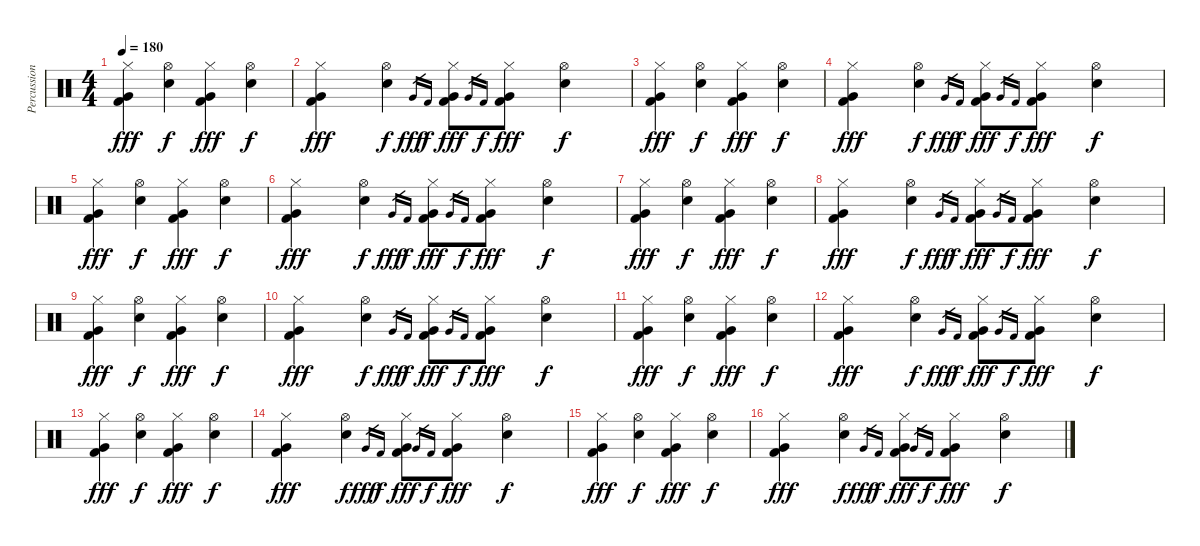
\track ("Percussion" "Percussion") {instrument percussion}
\staff {score}
\articulation defaults
\ts (4 4)
\tempo 180
\clef neutral
\ks c
("Hi-Hat (closed)" "Very Low Tom (hit)" "Kick (hit) 2").4{dy fff} ("Hi-Hat (open)" "Electric Snare (hit)").4{dy f} ("Hi-Hat (closed)" "Very Low Tom (hit)" "Kick (hit) 2").4{dy fff} ("Hi-Hat (open)" "Electric Snare (hit)").4{dy f} |
("Hi-Hat (closed)" "Very Low Tom (hit)" "Kick (hit) 2").4{dy fff} ("Hi-Hat (open)" "Electric Snare (hit)").4{dy f} "Very Low Tom (hit)".16{gr dy fff} "Kick (hit) 2".16{gr dy f} ("Hi-Hat (closed)" "Very Low Tom (hit)" "Kick (hit) 2").8{dy fff} "Very Low Tom (hit)".16{gr} "Kick (hit) 2".16{gr dy f} ("Hi-Hat (closed)" "Very Low Tom (hit)" "Kick (hit) 2").8{dy fff} ("Hi-Hat (open)" "Electric Snare (hit)").4{dy f} |
("Hi-Hat (closed)" "Very Low Tom (hit)" "Kick (hit) 2").4{dy fff} ("Hi-Hat (open)" "Electric Snare (hit)").4{dy f} ("Hi-Hat (closed)" "Very Low Tom (hit)" "Kick (hit) 2").4{dy fff} ("Hi-Hat (open)" "Electric Snare (hit)").4{dy f} |
("Hi-Hat (closed)" "Very Low Tom (hit)" "Kick (hit) 2").4{dy fff} ("Hi-Hat (open)" "Electric Snare (hit)").4{dy f} "Very Low Tom (hit)".16{gr dy fff} "Kick (hit) 2".16{gr dy f} ("Hi-Hat (closed)" "Very Low Tom (hit)" "Kick (hit) 2").8{dy fff} "Very Low Tom (hit)".16{gr} "Kick (hit) 2".16{gr dy f} ("Hi-Hat (closed)" "Very Low Tom (hit)" "Kick (hit) 2").8{dy fff} ("Hi-Hat (open)" "Electric Snare (hit)").4{dy f} |
("Hi-Hat (closed)" "Very Low Tom (hit)" "Kick (hit) 2").4{dy fff} ("Hi-Hat (open)" "Electric Snare (hit)").4{dy f} ("Hi-Hat (closed)" "Very Low Tom (hit)" "Kick (hit) 2").4{dy fff} ("Hi-Hat (open)" "Electric Snare (hit)").4{dy f} |
("Hi-Hat (closed)" "Very Low Tom (hit)" "Kick (hit) 2").4{dy fff} ("Hi-Hat (open)" "Electric Snare (hit)").4{dy f} "Very Low Tom (hit)".16{gr dy fff} "Kick (hit) 2".16{gr dy f} ("Hi-Hat (closed)" "Very Low Tom (hit)" "Kick (hit) 2").8{dy fff} "Very Low Tom (hit)".16{gr} "Kick (hit) 2".16{gr dy f} ("Hi-Hat (closed)" "Very Low Tom (hit)" "Kick (hit) 2").8{dy fff} ("Hi-Hat (open)" "Electric Snare (hit)").4{dy f} |
("Hi-Hat (closed)" "Very Low Tom (hit)" "Kick (hit) 2").4{dy fff} ("Hi-Hat (open)" "Electric Snare (hit)").4{dy f} ("Hi-Hat (closed)" "Very Low Tom (hit)" "Kick (hit) 2").4{dy fff} ("Hi-Hat (open)" "Electric Snare (hit)").4{dy f} |
("Hi-Hat (closed)" "Very Low Tom (hit)" "Kick (hit) 2").4{dy fff} ("Hi-Hat (open)" "Electric Snare (hit)").4{dy f} "Very Low Tom (hit)".16{gr dy fff} "Kick (hit) 2".16{gr dy f} ("Hi-Hat (closed)" "Very Low Tom (hit)" "Kick (hit) 2").8{dy fff} "Very Low Tom (hit)".16{gr} "Kick (hit) 2".16{gr dy f} ("Hi-Hat (closed)" "Very Low Tom (hit)" "Kick (hit) 2").8{dy fff} ("Hi-Hat (open)" "Electric Snare (hit)").4{dy f} |
("Hi-Hat (closed)" "Very Low Tom (hit)" "Kick (hit) 2").4{dy fff} ("Hi-Hat (open)" "Electric Snare (hit)").4{dy f} ("Hi-Hat (closed)" "Very Low Tom (hit)" "Kick (hit) 2").4{dy fff} ("Hi-Hat (open)" "Electric Snare (hit)").4{dy f} |
("Hi-Hat (closed)" "Very Low Tom (hit)" "Kick (hit) 2").4{dy fff} ("Hi-Hat (open)" "Electric Snare (hit)").4{dy f} "Very Low Tom (hit)".16{gr dy fff} "Kick (hit) 2".16{gr dy f} ("Hi-Hat (closed)" "Very Low Tom (hit)" "Kick (hit) 2").8{dy fff} "Very Low Tom (hit)".16{gr} "Kick (hit) 2".16{gr dy f} ("Hi-Hat (closed)" "Very Low Tom (hit)" "Kick (hit) 2").8{dy fff} ("Hi-Hat (open)" "Electric Snare (hit)").4{dy f} |
("Hi-Hat (closed)" "Very Low Tom (hit)" "Kick (hit) 2").4{dy fff} ("Hi-Hat (open)" "Electric Snare (hit)").4{dy f} ("Hi-Hat (closed)" "Very Low Tom (hit)" "Kick (hit) 2").4{dy fff} ("Hi-Hat (open)" "Electric Snare (hit)").4{dy f} |
("Hi-Hat (closed)" "Very Low Tom (hit)" "Kick (hit) 2").4{dy fff} ("Hi-Hat (open)" "Electric Snare (hit)").4{dy f} "Very Low Tom (hit)".16{gr dy fff} "Kick (hit) 2".16{gr dy f} ("Hi-Hat (closed)" "Very Low Tom (hit)" "Kick (hit) 2").8{dy fff} "Very Low Tom (hit)".16{gr} "Kick (hit) 2".16{gr dy f} ("Hi-Hat (closed)" "Very Low Tom (hit)" "Kick (hit) 2").8{dy fff} ("Hi-Hat (open)" "Electric Snare (hit)").4{dy f} |
("Hi-Hat (closed)" "Very Low Tom (hit)" "Kick (hit) 2").4{dy fff} ("Hi-Hat (open)" "Electric Snare (hit)").4{dy f} ("Hi-Hat (closed)" "Very Low Tom (hit)" "Kick (hit) 2").4{dy fff} ("Hi-Hat (open)" "Electric Snare (hit)").4{dy f} |
("Hi-Hat (closed)" "Very Low Tom (hit)" "Kick (hit) 2").4{dy fff} ("Hi-Hat (open)" "Electric Snare (hit)").4{dy f} "Very Low Tom (hit)".16{gr dy fff} "Kick (hit) 2".16{gr dy f} ("Hi-Hat (closed)" "Very Low Tom (hit)" "Kick (hit) 2").8{dy fff} "Very Low Tom (hit)".16{gr} "Kick (hit) 2".16{gr dy f} ("Hi-Hat (closed)" "Very Low Tom (hit)" "Kick (hit) 2").8{dy fff} ("Hi-Hat (open)" "Electric Snare (hit)").4{dy f} |
("Hi-Hat (closed)" "Very Low Tom (hit)" "Kick (hit) 2").4{dy fff} ("Hi-Hat (open)" "Electric Snare (hit)").4{dy f} ("Hi-Hat (closed)" "Very Low Tom (hit)" "Kick (hit) 2").4{dy fff} ("Hi-Hat (open)" "Electric Snare (hit)").4{dy f} |
("Hi-Hat (closed)" "Very Low Tom (hit)" "Kick (hit) 2").4{dy fff} ("Hi-Hat (open)" "Electric Snare (hit)").4{dy f} "Very Low Tom (hit)".16{gr dy fff} "Kick (hit) 2".16{gr dy f} ("Hi-Hat (closed)" "Very Low Tom (hit)" "Kick (hit) 2").8{dy fff} "Very Low Tom (hit)".16{gr} "Kick (hit) 2".16{gr dy f} ("Hi-Hat (closed)" "Very Low Tom (hit)" "Kick (hit) 2").8{dy fff} ("Hi-Hat (open)" "Electric Snare (hit)").4{dy f}
